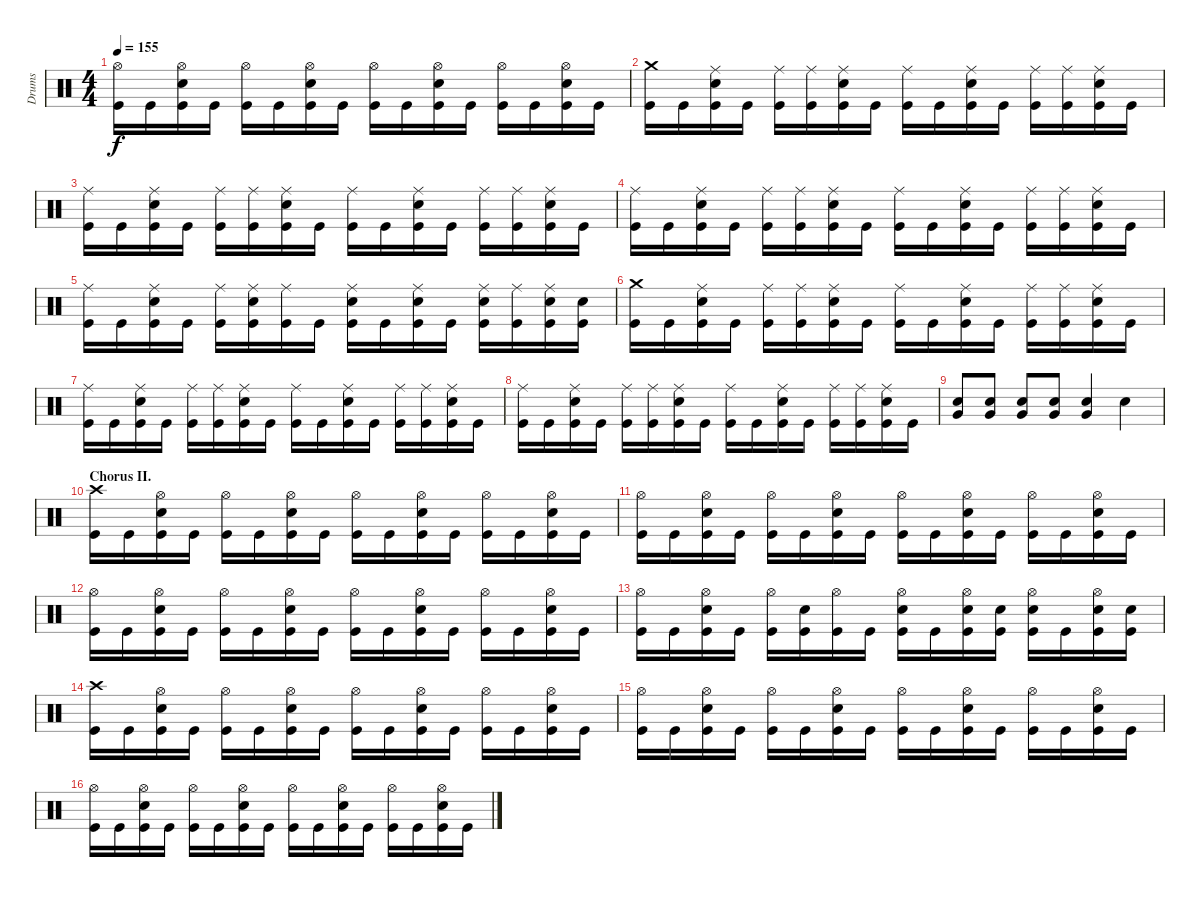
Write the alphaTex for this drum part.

\track ("Drums" "Drums") {instrument percussion}
\staff {score}
\articulation defaults
\ts (4 4)
\tempo 155
\clef neutral
\ks c
("Hi-Hat (open)" "Kick (hit)").16{dy f} "Kick (hit)".16 ("Hi-Hat (open)" "Snare (hit) 2" "Kick (hit)").16 "Kick (hit)".16 ("Hi-Hat (open)" "Kick (hit)").16 "Kick (hit)".16 ("Hi-Hat (open)" "Snare (hit) 2" "Kick (hit)").16 "Kick (hit)".16 ("Hi-Hat (open)" "Kick (hit)").16 "Kick (hit)".16 ("Hi-Hat (open)" "Snare (hit) 2" "Kick (hit)").16 "Kick (hit)".16 ("Hi-Hat (open)" "Kick (hit)").16 "Kick (hit)".16 ("Hi-Hat (open)" "Snare (hit) 2" "Kick (hit)").16 "Kick (hit)".16 |
("Crash medium (hit)" "Kick (hit)").16 "Kick (hit)".16 ("Ride (middle)" "Snare (hit) 2" "Kick (hit)").16 "Kick (hit)".16 ("Ride (middle)" "Kick (hit)").16 ("Ride (middle)" "Kick (hit)").16 ("Ride (middle)" "Snare (hit) 2" "Kick (hit)").16 "Kick (hit)".16 ("Ride (middle)" "Kick (hit)").16 "Kick (hit)".16 ("Ride (middle)" "Snare (hit) 2" "Kick (hit)").16 "Kick (hit)".16 ("Ride (middle)" "Kick (hit)").16 ("Ride (middle)" "Kick (hit)").16 ("Ride (middle)" "Snare (hit) 2" "Kick (hit)").16 "Kick (hit)".16 |
("Ride (middle)" "Kick (hit)").16 "Kick (hit)".16 ("Ride (middle)" "Snare (hit) 2" "Kick (hit)").16 "Kick (hit)".16 ("Ride (middle)" "Kick (hit)").16 ("Ride (middle)" "Kick (hit)").16 ("Ride (middle)" "Snare (hit) 2" "Kick (hit)").16 "Kick (hit)".16 ("Ride (middle)" "Kick (hit)").16 "Kick (hit)".16 ("Ride (middle)" "Snare (hit) 2" "Kick (hit)").16 "Kick (hit)".16 ("Ride (middle)" "Kick (hit)").16 ("Ride (middle)" "Kick (hit)").16 ("Ride (middle)" "Snare (hit) 2" "Kick (hit)").16 "Kick (hit)".16 |
("Ride (middle)" "Kick (hit)").16 "Kick (hit)".16 ("Ride (middle)" "Snare (hit) 2" "Kick (hit)").16 "Kick (hit)".16 ("Ride (middle)" "Kick (hit)").16 ("Ride (middle)" "Kick (hit)").16 ("Ride (middle)" "Snare (hit) 2" "Kick (hit)").16 "Kick (hit)".16 ("Ride (middle)" "Kick (hit)").16 "Kick (hit)".16 ("Ride (middle)" "Snare (hit) 2" "Kick (hit)").16 "Kick (hit)".16 ("Ride (middle)" "Kick (hit)").16 ("Ride (middle)" "Kick (hit)").16 ("Ride (middle)" "Snare (hit) 2" "Kick (hit)").16 "Kick (hit)".16 |
("Ride (middle)" "Kick (hit)").16 "Kick (hit)".16 ("Ride (middle)" "Snare (hit) 2" "Kick (hit)").16 "Kick (hit)".16 ("Ride (middle)" "Kick (hit)").16 ("Ride (middle)" "Snare (hit) 2" "Kick (hit)").16 ("Ride (middle)" "Kick (hit)").16 "Kick (hit)".16 ("Ride (middle)" "Snare (hit) 2" "Kick (hit)").16 "Kick (hit)".16 ("Ride (middle)" "Snare (hit) 2" "Kick (hit)").16 "Kick (hit)".16 ("Ride (middle)" "Snare (hit) 2" "Kick (hit)").16 ("Ride (middle)" "Kick (hit)").16 ("Ride (middle)" "Snare (hit) 2" "Kick (hit)").16 ("Snare (hit) 2" "Kick (hit)").16 |
("Crash medium (hit)" "Kick (hit)").16 "Kick (hit)".16 ("Ride (middle)" "Snare (hit) 2" "Kick (hit)").16 "Kick (hit)".16 ("Ride (middle)" "Kick (hit)").16 ("Ride (middle)" "Kick (hit)").16 ("Ride (middle)" "Snare (hit) 2" "Kick (hit)").16 "Kick (hit)".16 ("Ride (middle)" "Kick (hit)").16 "Kick (hit)".16 ("Ride (middle)" "Snare (hit) 2" "Kick (hit)").16 "Kick (hit)".16 ("Ride (middle)" "Kick (hit)").16 ("Ride (middle)" "Kick (hit)").16 ("Ride (middle)" "Snare (hit) 2" "Kick (hit)").16 "Kick (hit)".16 |
("Ride (middle)" "Kick (hit)").16 "Kick (hit)".16 ("Ride (middle)" "Snare (hit) 2" "Kick (hit)").16 "Kick (hit)".16 ("Ride (middle)" "Kick (hit)").16 ("Ride (middle)" "Kick (hit)").16 ("Ride (middle)" "Snare (hit) 2" "Kick (hit)").16 "Kick (hit)".16 ("Ride (middle)" "Kick (hit)").16 "Kick (hit)".16 ("Ride (middle)" "Snare (hit) 2" "Kick (hit)").16 "Kick (hit)".16 ("Ride (middle)" "Kick (hit)").16 ("Ride (middle)" "Kick (hit)").16 ("Ride (middle)" "Snare (hit) 2" "Kick (hit)").16 "Kick (hit)".16 |
("Ride (middle)" "Kick (hit)").16 "Kick (hit)".16 ("Ride (middle)" "Snare (hit) 2" "Kick (hit)").16 "Kick (hit)".16 ("Ride (middle)" "Kick (hit)").16 ("Ride (middle)" "Kick (hit)").16 ("Ride (middle)" "Snare (hit) 2" "Kick (hit)").16 "Kick (hit)".16 ("Ride (middle)" "Kick (hit)").16 "Kick (hit)".16 ("Ride (middle)" "Snare (hit) 2" "Kick (hit)").16 "Kick (hit)".16 ("Ride (middle)" "Kick (hit)").16 ("Ride (middle)" "Kick (hit)").16 ("Ride (middle)" "Snare (hit) 2" "Kick (hit)").16 "Kick (hit)".16 |
("Very Low Tom (hit)" "Snare (hit) 2").8 ("Very Low Tom (hit)" "Snare (hit) 2").8 ("Very Low Tom (hit)" "Snare (hit) 2").8 ("Very Low Tom (hit)" "Snare (hit) 2").8 ("Very Low Tom (hit)" "Snare (hit) 2").4 "Snare (hit) 2".4 |
\section ("" "Chorus II.")
("Crash high (hit)" "Kick (hit)").16 "Kick (hit)".16 ("Hi-Hat (open)" "Snare (hit) 2" "Kick (hit)").16 "Kick (hit)".16 ("Hi-Hat (open)" "Kick (hit)").16 "Kick (hit)".16 ("Hi-Hat (open)" "Snare (hit) 2" "Kick (hit)").16 "Kick (hit)".16 ("Hi-Hat (open)" "Kick (hit)").16 "Kick (hit)".16 ("Hi-Hat (open)" "Snare (hit) 2" "Kick (hit)").16 "Kick (hit)".16 ("Hi-Hat (open)" "Kick (hit)").16 "Kick (hit)".16 ("Hi-Hat (open)" "Snare (hit) 2" "Kick (hit)").16 "Kick (hit)".16 |
("Hi-Hat (open)" "Kick (hit)").16 "Kick (hit)".16 ("Hi-Hat (open)" "Snare (hit) 2" "Kick (hit)").16 "Kick (hit)".16 ("Hi-Hat (open)" "Kick (hit)").16 "Kick (hit)".16 ("Hi-Hat (open)" "Snare (hit) 2" "Kick (hit)").16 "Kick (hit)".16 ("Hi-Hat (open)" "Kick (hit)").16 "Kick (hit)".16 ("Hi-Hat (open)" "Snare (hit) 2" "Kick (hit)").16 "Kick (hit)".16 ("Hi-Hat (open)" "Kick (hit)").16 "Kick (hit)".16 ("Hi-Hat (open)" "Snare (hit) 2" "Kick (hit)").16 "Kick (hit)".16 |
("Hi-Hat (open)" "Kick (hit)").16 "Kick (hit)".16 ("Hi-Hat (open)" "Snare (hit) 2" "Kick (hit)").16 "Kick (hit)".16 ("Hi-Hat (open)" "Kick (hit)").16 "Kick (hit)".16 ("Hi-Hat (open)" "Snare (hit) 2" "Kick (hit)").16 "Kick (hit)".16 ("Hi-Hat (open)" "Kick (hit)").16 "Kick (hit)".16 ("Hi-Hat (open)" "Snare (hit) 2" "Kick (hit)").16 "Kick (hit)".16 ("Hi-Hat (open)" "Kick (hit)").16 "Kick (hit)".16 ("Hi-Hat (open)" "Snare (hit) 2" "Kick (hit)").16 "Kick (hit)".16 |
("Hi-Hat (open)" "Kick (hit)").16 "Kick (hit)".16 ("Hi-Hat (open)" "Snare (hit) 2" "Kick (hit)").16 "Kick (hit)".16 ("Hi-Hat (open)" "Kick (hit)").16 ("Snare (hit) 2" "Kick (hit)").16 ("Hi-Hat (open)" "Kick (hit)").16 "Kick (hit)".16 ("Hi-Hat (open)" "Snare (hit) 2" "Kick (hit)").16 "Kick (hit)".16 ("Hi-Hat (open)" "Snare (hit) 2" "Kick (hit)").16 ("Snare (hit) 2" "Kick (hit)").16 ("Hi-Hat (open)" "Snare (hit) 2" "Kick (hit)").16 "Kick (hit)".16 ("Hi-Hat (open)" "Snare (hit) 2" "Kick (hit)").16 ("Snare (hit) 2" "Kick (hit)").16 |
("Crash high (hit)" "Kick (hit)").16 "Kick (hit)".16 ("Hi-Hat (open)" "Snare (hit) 2" "Kick (hit)").16 "Kick (hit)".16 ("Hi-Hat (open)" "Kick (hit)").16 "Kick (hit)".16 ("Hi-Hat (open)" "Snare (hit) 2" "Kick (hit)").16 "Kick (hit)".16 ("Hi-Hat (open)" "Kick (hit)").16 "Kick (hit)".16 ("Hi-Hat (open)" "Snare (hit) 2" "Kick (hit)").16 "Kick (hit)".16 ("Hi-Hat (open)" "Kick (hit)").16 "Kick (hit)".16 ("Hi-Hat (open)" "Snare (hit) 2" "Kick (hit)").16 "Kick (hit)".16 |
("Hi-Hat (open)" "Kick (hit)").16 "Kick (hit)".16 ("Hi-Hat (open)" "Snare (hit) 2" "Kick (hit)").16 "Kick (hit)".16 ("Hi-Hat (open)" "Kick (hit)").16 "Kick (hit)".16 ("Hi-Hat (open)" "Snare (hit) 2" "Kick (hit)").16 "Kick (hit)".16 ("Hi-Hat (open)" "Kick (hit)").16 "Kick (hit)".16 ("Hi-Hat (open)" "Snare (hit) 2" "Kick (hit)").16 "Kick (hit)".16 ("Hi-Hat (open)" "Kick (hit)").16 "Kick (hit)".16 ("Hi-Hat (open)" "Snare (hit) 2" "Kick (hit)").16 "Kick (hit)".16 |
("Hi-Hat (open)" "Kick (hit)").16 "Kick (hit)".16 ("Hi-Hat (open)" "Snare (hit) 2" "Kick (hit)").16 "Kick (hit)".16 ("Hi-Hat (open)" "Kick (hit)").16 "Kick (hit)".16 ("Hi-Hat (open)" "Snare (hit) 2" "Kick (hit)").16 "Kick (hit)".16 ("Hi-Hat (open)" "Kick (hit)").16 "Kick (hit)".16 ("Hi-Hat (open)" "Snare (hit) 2" "Kick (hit)").16 "Kick (hit)".16 ("Hi-Hat (open)" "Kick (hit)").16 "Kick (hit)".16 ("Hi-Hat (open)" "Snare (hit) 2" "Kick (hit)").16 "Kick (hit)".16
